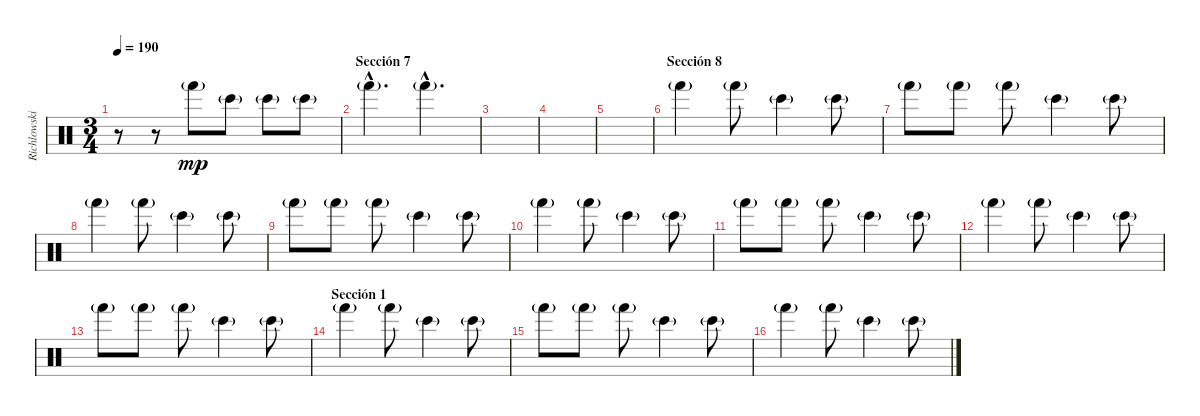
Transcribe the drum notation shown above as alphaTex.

\track ("Richlowski y Dj Raff" "Richlowski") {instrument percussion}
\staff {score}
\articulation defaults
\ts (3 4)
\tempo 190
\clef neutral
\ks c
r.8{dy mp} r.8 "Hand (hit)"{g}.8 "Bongo High (hit)"{g}.8 "Bongo High (hit)"{g}.8 "Bongo High (hit)"{g}.8 |
\section ("" "Sección 7")
"Hand (hit)"{g hac}.4{d} "Hand (hit)"{g hac}.4{d} |
|
|
|
\section ("" "Sección 8")
"Hand (hit)"{g}.4 "Hand (hit)"{g}.8 "Bongo High (hit)"{g}.4 "Bongo High (hit)"{g}.8 |
"Hand (hit)"{g}.8 "Hand (hit)"{g}.8 "Hand (hit)"{g}.8 "Bongo High (hit)"{g}.4 "Bongo High (hit)"{g}.8 |
"Hand (hit)"{g}.4 "Hand (hit)"{g}.8 "Bongo High (hit)"{g}.4 "Bongo High (hit)"{g}.8 |
"Hand (hit)"{g}.8 "Hand (hit)"{g}.8 "Hand (hit)"{g}.8 "Bongo High (hit)"{g}.4 "Bongo High (hit)"{g}.8 |
"Hand (hit)"{g}.4 "Hand (hit)"{g}.8 "Bongo High (hit)"{g}.4 "Bongo High (hit)"{g}.8 |
"Hand (hit)"{g}.8 "Hand (hit)"{g}.8 "Hand (hit)"{g}.8 "Bongo High (hit)"{g}.4 "Bongo High (hit)"{g}.8 |
"Hand (hit)"{g}.4 "Hand (hit)"{g}.8 "Bongo High (hit)"{g}.4 "Bongo High (hit)"{g}.8 |
"Hand (hit)"{g}.8 "Hand (hit)"{g}.8 "Hand (hit)"{g}.8 "Bongo High (hit)"{g}.4 "Bongo High (hit)"{g}.8 |
\section ("" "Sección 1")
"Hand (hit)"{g}.4 "Hand (hit)"{g}.8 "Bongo High (hit)"{g}.4 "Bongo High (hit)"{g}.8 |
"Hand (hit)"{g}.8 "Hand (hit)"{g}.8 "Hand (hit)"{g}.8 "Bongo High (hit)"{g}.4 "Bongo High (hit)"{g}.8 |
"Hand (hit)"{g}.4 "Hand (hit)"{g}.8 "Bongo High (hit)"{g}.4 "Bongo High (hit)"{g}.8
